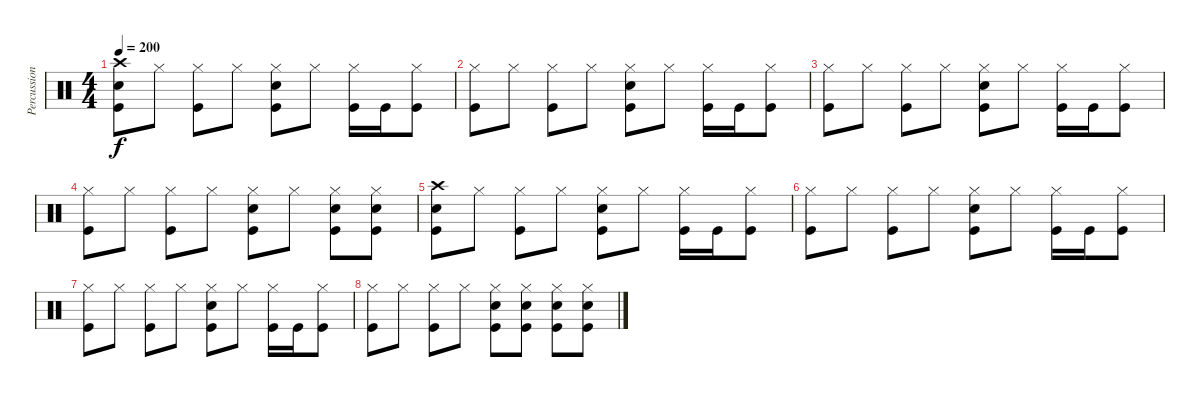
\track ("Percussion" "Percussion") {instrument percussion}
\staff {score}
\articulation defaults
\ts (4 4)
\tempo 200
\clef neutral
\ks c
("Crash high (hit)" "Snare (hit) 2" "Kick (hit)").8{dy f} "Hi-Hat (closed)".8 ("Hi-Hat (closed)" "Kick (hit)").8 "Hi-Hat (closed)".8 ("Hi-Hat (closed)" "Snare (hit) 2" "Kick (hit)").8 "Hi-Hat (closed)".8 ("Hi-Hat (closed)" "Kick (hit)").16 "Kick (hit)".16 ("Hi-Hat (closed)" "Kick (hit)").8 |
("Hi-Hat (closed)" "Kick (hit)").8 "Hi-Hat (closed)".8 ("Hi-Hat (closed)" "Kick (hit)").8 "Hi-Hat (closed)".8 ("Hi-Hat (closed)" "Snare (hit) 2" "Kick (hit)").8 "Hi-Hat (closed)".8 ("Hi-Hat (closed)" "Kick (hit)").16 "Kick (hit)".16 ("Hi-Hat (closed)" "Kick (hit)").8 |
("Hi-Hat (closed)" "Kick (hit)").8 "Hi-Hat (closed)".8 ("Hi-Hat (closed)" "Kick (hit)").8 "Hi-Hat (closed)".8 ("Hi-Hat (closed)" "Snare (hit) 2" "Kick (hit)").8 "Hi-Hat (closed)".8 ("Hi-Hat (closed)" "Kick (hit)").16 "Kick (hit)".16 ("Hi-Hat (closed)" "Kick (hit)").8 |
("Hi-Hat (closed)" "Kick (hit)").8 "Hi-Hat (closed)".8 ("Hi-Hat (closed)" "Kick (hit)").8 "Hi-Hat (closed)".8 ("Hi-Hat (closed)" "Snare (hit) 2" "Kick (hit)").8 "Hi-Hat (closed)".8 ("Hi-Hat (closed)" "Snare (hit) 2" "Kick (hit)").8 ("Hi-Hat (closed)" "Snare (hit) 2" "Kick (hit)").8 |
("Crash high (hit)" "Snare (hit) 2" "Kick (hit)").8 "Hi-Hat (closed)".8 ("Hi-Hat (closed)" "Kick (hit)").8 "Hi-Hat (closed)".8 ("Hi-Hat (closed)" "Snare (hit) 2" "Kick (hit)").8 "Hi-Hat (closed)".8 ("Hi-Hat (closed)" "Kick (hit)").16 "Kick (hit)".16 ("Hi-Hat (closed)" "Kick (hit)").8 |
("Hi-Hat (closed)" "Kick (hit)").8 "Hi-Hat (closed)".8 ("Hi-Hat (closed)" "Kick (hit)").8 "Hi-Hat (closed)".8 ("Hi-Hat (closed)" "Snare (hit) 2" "Kick (hit)").8 "Hi-Hat (closed)".8 ("Hi-Hat (closed)" "Kick (hit)").16 "Kick (hit)".16 ("Hi-Hat (closed)" "Kick (hit)").8 |
("Hi-Hat (closed)" "Kick (hit)").8 "Hi-Hat (closed)".8 ("Hi-Hat (closed)" "Kick (hit)").8 "Hi-Hat (closed)".8 ("Hi-Hat (closed)" "Snare (hit) 2" "Kick (hit)").8 "Hi-Hat (closed)".8 ("Hi-Hat (closed)" "Kick (hit)").16 "Kick (hit)".16 ("Hi-Hat (closed)" "Kick (hit)").8 |
("Hi-Hat (closed)" "Kick (hit)").8 "Hi-Hat (closed)".8 ("Hi-Hat (closed)" "Kick (hit)").8 "Hi-Hat (closed)".8 ("Hi-Hat (closed)" "Snare (hit) 2" "Kick (hit)").8 ("Hi-Hat (closed)" "Snare (hit) 2" "Kick (hit)").8 ("Hi-Hat (closed)" "Snare (hit) 2" "Kick (hit)").8 ("Hi-Hat (closed)" "Snare (hit) 2" "Kick (hit)").8
